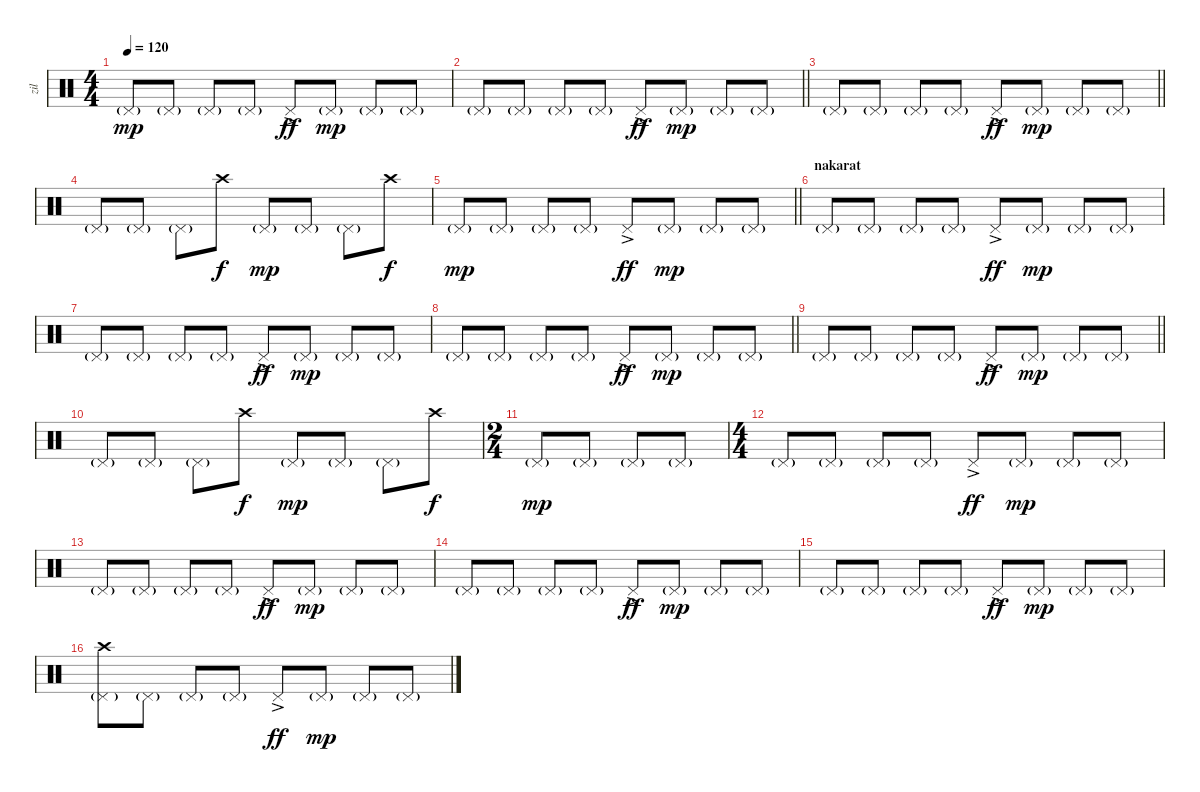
\track ("zil" "zil") {instrument percussion}
\staff {score}
\articulation defaults
\ts (4 4)
\tempo 120
\clef neutral
\ks c "Pedal Hi-Hat (hit)"{g}.8{dy mp} "Pedal Hi-Hat (hit)"{g}.8 "Pedal Hi-Hat (hit)"{g}.8 "Pedal Hi-Hat (hit)"{g}.8 "Pedal Hi-Hat (hit)"{ac}.8{dy ff} "Pedal Hi-Hat (hit)"{g}.8{dy mp} "Pedal Hi-Hat (hit)"{g}.8 "Pedal Hi-Hat (hit)"{g}.8
|
\barLineRight lightlight "Pedal Hi-Hat (hit)"{g}.8 "Pedal Hi-Hat (hit)"{g}.8 "Pedal Hi-Hat (hit)"{g}.8 "Pedal Hi-Hat (hit)"{g}.8 "Pedal Hi-Hat (hit)"{ac}.8{dy ff} "Pedal Hi-Hat (hit)"{g}.8{dy mp} "Pedal Hi-Hat (hit)"{g}.8 "Pedal Hi-Hat (hit)"{g}.8
|
\barLineRight lightlight "Pedal Hi-Hat (hit)"{g}.8 "Pedal Hi-Hat (hit)"{g}.8 "Pedal Hi-Hat (hit)"{g}.8 "Pedal Hi-Hat (hit)"{g}.8 "Pedal Hi-Hat (hit)"{ac}.8{dy ff} "Pedal Hi-Hat (hit)"{g}.8{dy mp} "Pedal Hi-Hat (hit)"{g}.8 "Pedal Hi-Hat (hit)"{g}.8
|
"Pedal Hi-Hat (hit)"{g}.8 "Pedal Hi-Hat (hit)"{g}.8 "Pedal Hi-Hat (hit)"{g}.8 "Crash high (hit)".8{dy f} "Pedal Hi-Hat (hit)"{g}.8{dy mp} "Pedal Hi-Hat (hit)"{g}.8 "Pedal Hi-Hat (hit)"{g}.8 "Crash high (hit)".8{dy f} |
\barLineRight lightlight "Pedal Hi-Hat (hit)"{g}.8{dy mp} "Pedal Hi-Hat (hit)"{g}.8 "Pedal Hi-Hat (hit)"{g}.8 "Pedal Hi-Hat (hit)"{g}.8 "Pedal Hi-Hat (hit)"{ac}.8{dy ff} "Pedal Hi-Hat (hit)"{g}.8{dy mp} "Pedal Hi-Hat (hit)"{g}.8 "Pedal Hi-Hat (hit)"{g}.8
|
\section ("" "nakarat")
"Pedal Hi-Hat (hit)"{g}.8 "Pedal Hi-Hat (hit)"{g}.8 "Pedal Hi-Hat (hit)"{g}.8 "Pedal Hi-Hat (hit)"{g}.8 "Pedal Hi-Hat (hit)"{ac}.8{dy ff} "Pedal Hi-Hat (hit)"{g}.8{dy mp} "Pedal Hi-Hat (hit)"{g}.8 "Pedal Hi-Hat (hit)"{g}.8 |
"Pedal Hi-Hat (hit)"{g}.8 "Pedal Hi-Hat (hit)"{g}.8 "Pedal Hi-Hat (hit)"{g}.8 "Pedal Hi-Hat (hit)"{g}.8 "Pedal Hi-Hat (hit)"{ac}.8{dy ff} "Pedal Hi-Hat (hit)"{g}.8{dy mp} "Pedal Hi-Hat (hit)"{g}.8 "Pedal Hi-Hat (hit)"{g}.8 |
\barLineRight lightlight "Pedal Hi-Hat (hit)"{g}.8 "Pedal Hi-Hat (hit)"{g}.8 "Pedal Hi-Hat (hit)"{g}.8 "Pedal Hi-Hat (hit)"{g}.8 "Pedal Hi-Hat (hit)"{ac}.8{dy ff} "Pedal Hi-Hat (hit)"{g}.8{dy mp} "Pedal Hi-Hat (hit)"{g}.8 "Pedal Hi-Hat (hit)"{g}.8
|
\barLineRight lightlight "Pedal Hi-Hat (hit)"{g}.8 "Pedal Hi-Hat (hit)"{g}.8 "Pedal Hi-Hat (hit)"{g}.8 "Pedal Hi-Hat (hit)"{g}.8 "Pedal Hi-Hat (hit)"{ac}.8{dy ff} "Pedal Hi-Hat (hit)"{g}.8{dy mp} "Pedal Hi-Hat (hit)"{g}.8 "Pedal Hi-Hat (hit)"{g}.8
|
"Pedal Hi-Hat (hit)"{g}.8 "Pedal Hi-Hat (hit)"{g}.8 "Pedal Hi-Hat (hit)"{g}.8 "Crash high (hit)".8{dy f} "Pedal Hi-Hat (hit)"{g}.8{dy mp} "Pedal Hi-Hat (hit)"{g}.8 "Pedal Hi-Hat (hit)"{g}.8 "Crash high (hit)".8{dy f} |
\ts (2 4)
"Pedal Hi-Hat (hit)"{g}.8{dy mp} "Pedal Hi-Hat (hit)"{g}.8 "Pedal Hi-Hat (hit)"{g}.8 "Pedal Hi-Hat (hit)"{g}.8 |
\ts (4 4)
"Pedal Hi-Hat (hit)"{g}.8 "Pedal Hi-Hat (hit)"{g}.8 "Pedal Hi-Hat (hit)"{g}.8 "Pedal Hi-Hat (hit)"{g}.8 "Pedal Hi-Hat (hit)"{ac}.8{dy ff} "Pedal Hi-Hat (hit)"{g}.8{dy mp} "Pedal Hi-Hat (hit)"{g}.8 "Pedal Hi-Hat (hit)"{g}.8 |
"Pedal Hi-Hat (hit)"{g}.8 "Pedal Hi-Hat (hit)"{g}.8 "Pedal Hi-Hat (hit)"{g}.8 "Pedal Hi-Hat (hit)"{g}.8 "Pedal Hi-Hat (hit)"{ac}.8{dy ff} "Pedal Hi-Hat (hit)"{g}.8{dy mp} "Pedal Hi-Hat (hit)"{g}.8 "Pedal Hi-Hat (hit)"{g}.8 |
"Pedal Hi-Hat (hit)"{g}.8 "Pedal Hi-Hat (hit)"{g}.8 "Pedal Hi-Hat (hit)"{g}.8 "Pedal Hi-Hat (hit)"{g}.8 "Pedal Hi-Hat (hit)"{ac}.8{dy ff} "Pedal Hi-Hat (hit)"{g}.8{dy mp} "Pedal Hi-Hat (hit)"{g}.8 "Pedal Hi-Hat (hit)"{g}.8 |
"Pedal Hi-Hat (hit)"{g}.8 "Pedal Hi-Hat (hit)"{g}.8 "Pedal Hi-Hat (hit)"{g}.8 "Pedal Hi-Hat (hit)"{g}.8 "Pedal Hi-Hat (hit)"{ac}.8{dy ff} "Pedal Hi-Hat (hit)"{g}.8{dy mp} "Pedal Hi-Hat (hit)"{g}.8 "Pedal Hi-Hat (hit)"{g}.8 |
("Crash high (hit)" "Pedal Hi-Hat (hit)"{g}).8 "Pedal Hi-Hat (hit)"{g}.8 "Pedal Hi-Hat (hit)"{g}.8 "Pedal Hi-Hat (hit)"{g}.8 "Pedal Hi-Hat (hit)"{ac}.8{dy ff} "Pedal Hi-Hat (hit)"{g}.8{dy mp} "Pedal Hi-Hat (hit)"{g}.8 "Pedal Hi-Hat (hit)"{g}.8
